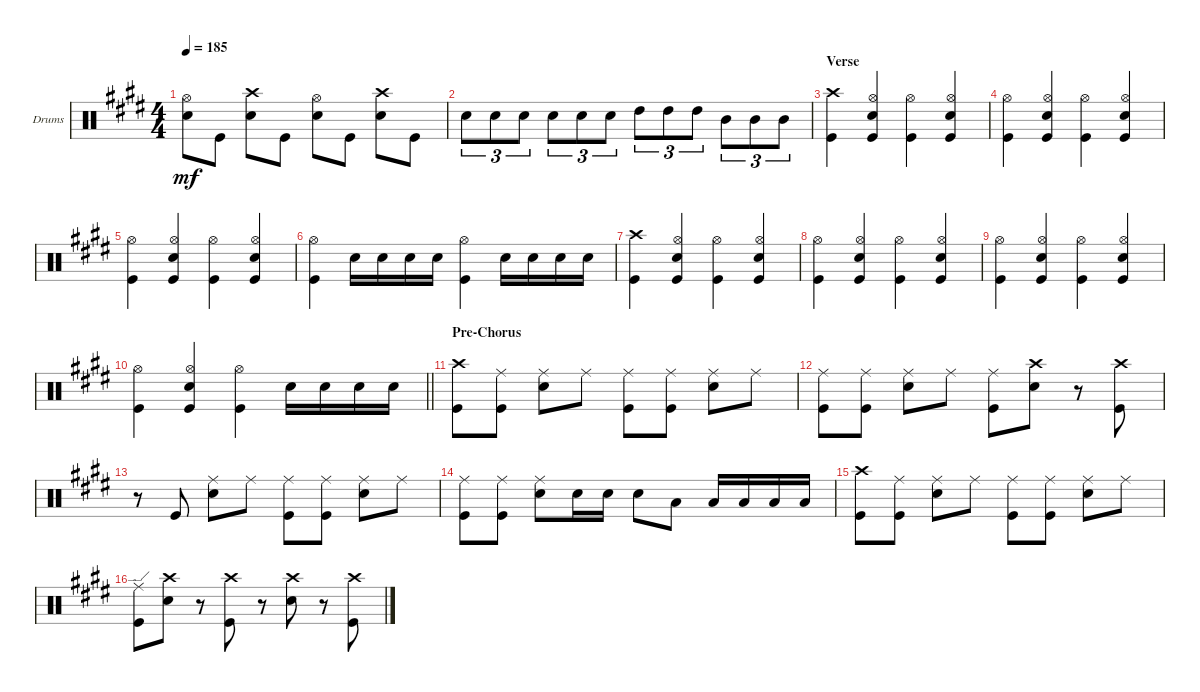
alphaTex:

\defaultSystemsLayout 4
\bracketExtendMode groupsimilarinstruments
\firstSystemTrackNameOrientation horizontal
\otherSystemsTrackNameOrientation horizontal
\track ("Drums" "Drums") {instrument percussion}
\staff {score}
\articulation defaults
\ts (4 4)
\tempo 185
\clef neutral
\ks e
("Snare (hit) 2" "Hi-Hat (open)").8{dy mf} "Kick (hit)".8 ("Snare (hit) 2" "Crash high (hit)").8 "Kick (hit)".8 ("Snare (hit) 2" "Hi-Hat (open)").8 "Kick (hit)".8 ("Snare (hit) 2" "Crash high (hit)").8 "Kick (hit)".8 |
"Snare (hit) 2".8{tu (3 2)} "Snare (hit) 2".8{tu (3 2)} "Snare (hit) 2".8{tu (3 2)} "Snare (hit) 2".8{tu (3 2)} "Snare (hit) 2".8{tu (3 2)} "Snare (hit) 2".8{tu (3 2)} "High Tom (hit)".8{tu (3 2)} "High Tom (hit)".8{tu (3 2)} "High Tom (hit)".8{tu (3 2)} "Mid Tom (hit)".8{tu (3 2)} "Mid Tom (hit)".8{tu (3 2)} "Mid Tom (hit)".8{tu (3 2)} |
\section ("" "Verse")
("Kick (hit)" "Crash high (hit)").4 ("Hi-Hat (open)" "Snare (hit) 2" "Kick (hit)").4 ("Hi-Hat (open)" "Kick (hit)").4 ("Hi-Hat (open)" "Snare (hit) 2" "Kick (hit)").4 |
("Hi-Hat (open)" "Kick (hit)").4 ("Hi-Hat (open)" "Snare (hit) 2" "Kick (hit)").4 ("Hi-Hat (open)" "Kick (hit)").4 ("Hi-Hat (open)" "Snare (hit) 2" "Kick (hit)").4 |
("Hi-Hat (open)" "Kick (hit)").4 ("Hi-Hat (open)" "Snare (hit) 2" "Kick (hit)").4 ("Hi-Hat (open)" "Kick (hit)").4 ("Hi-Hat (open)" "Snare (hit) 2" "Kick (hit)").4 |
("Hi-Hat (open)" "Kick (hit)").4 "Snare (hit) 2".16 "Snare (hit) 2".16 "Snare (hit) 2".16 "Snare (hit) 2".16 ("Hi-Hat (open)" "Kick (hit)").4 "Snare (hit) 2".16 "Snare (hit) 2".16 "Snare (hit) 2".16 "Snare (hit) 2".16 |
("Kick (hit)" "Crash high (hit)").4 ("Hi-Hat (open)" "Snare (hit) 2" "Kick (hit)").4 ("Hi-Hat (open)" "Kick (hit)").4 ("Hi-Hat (open)" "Snare (hit) 2" "Kick (hit)").4 |
("Hi-Hat (open)" "Kick (hit)").4 ("Hi-Hat (open)" "Snare (hit) 2" "Kick (hit)").4 ("Hi-Hat (open)" "Kick (hit)").4 ("Hi-Hat (open)" "Snare (hit) 2" "Kick (hit)").4 |
("Hi-Hat (open)" "Kick (hit)").4 ("Hi-Hat (open)" "Snare (hit) 2" "Kick (hit)").4 ("Hi-Hat (open)" "Kick (hit)").4 ("Hi-Hat (open)" "Snare (hit) 2" "Kick (hit)").4 |
\barLineRight lightlight
("Hi-Hat (open)" "Kick (hit)").4 ("Hi-Hat (open)" "Snare (hit) 2" "Kick (hit)").4 ("Hi-Hat (open)" "Kick (hit)").4 "Snare (hit) 2".16 "Snare (hit) 2".16 "Snare (hit) 2".16 "Snare (hit) 2".16 |
\section ("" "Pre-Chorus")
("Kick (hit)" "Crash high (hit)").8 ("Kick (hit)" "Ride (middle)").8 ("Snare (hit) 2" "Ride (middle)").8 "Ride (middle)".8 ("Kick (hit)" "Ride (middle)").8 ("Kick (hit)" "Ride (middle)").8 ("Snare (hit) 2" "Ride (middle)").8 "Ride (middle)".8 |
("Kick (hit)" "Ride (middle)").8 ("Kick (hit)" "Ride (middle)").8 ("Snare (hit) 2" "Ride (middle)").8 "Ride (middle)".8 ("Kick (hit)" "Ride (middle)").8 ("Snare (hit) 2" "Crash high (hit)").8 r.8 ("Kick (hit)" "Crash high (hit)").8 |
r.8 "Kick (hit)".8 ("Snare (hit) 2" "Ride (middle)").8 "Ride (middle)".8 ("Kick (hit)" "Ride (middle)").8 ("Kick (hit)" "Ride (middle)").8 ("Snare (hit) 2" "Ride (middle)").8 "Ride (middle)".8 |
("Kick (hit)" "Ride (middle)").8 ("Kick (hit)" "Ride (middle)").8 ("Snare (hit) 2" "Ride (middle)").8 "Snare (hit) 2".16 "Snare (hit) 2".16 "Snare (hit) 2".8 "Low Tom (hit)".8 "Low Tom (hit)".16 "Low Tom (hit)".16 "Low Tom (hit)".16 "Low Tom (hit)".16 |
("Kick (hit)" "Crash high (hit)").8 ("Kick (hit)" "Ride (middle)").8 ("Snare (hit) 2" "Ride (middle)").8 "Ride (middle)".8 ("Kick (hit)" "Ride (middle)").8 ("Kick (hit)" "Ride (middle)").8 ("Snare (hit) 2" "Ride (middle)").8 "Ride (middle)".8 |
("Kick (hit)" "Ride (edge)").8 ("Crash high (hit)" "Snare (hit) 2").8 r.8 ("Crash high (hit)" "Kick (hit)").8 r.8 ("Crash high (hit)" "Snare (hit) 2").8 r.8 ("Kick (hit)" "Crash high (hit)").8
